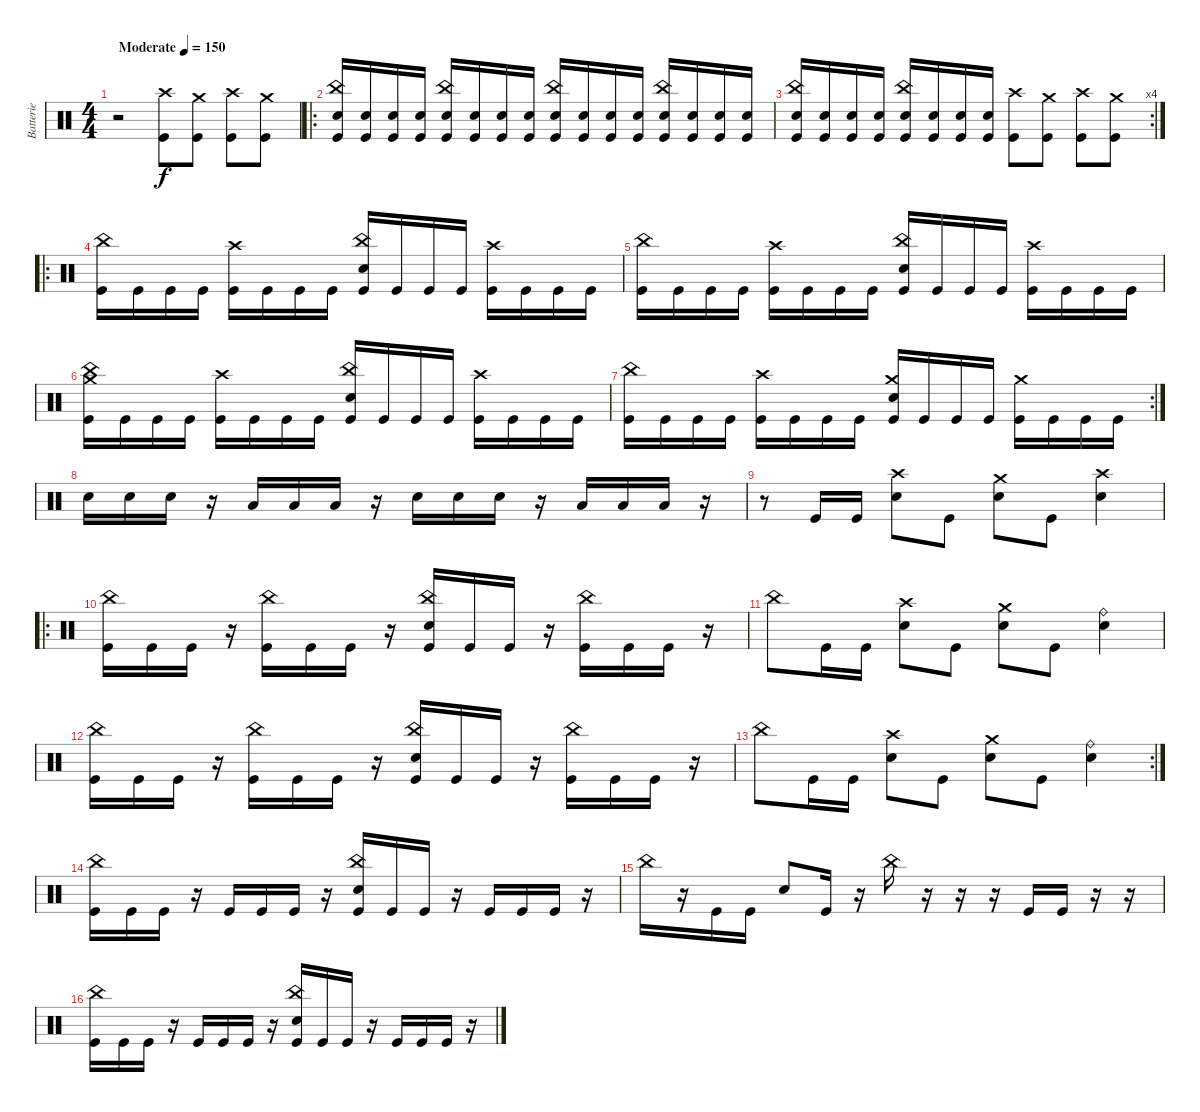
\track ("Batterie" "Batterie") {instrument percussion}
\staff {score}
\articulation defaults
\ts (4 4)
\tempo (150 "Moderate")
\clef neutral
\ks c
r.2{dy f} ("Crash high (hit)" "Kick (hit)").8 ("Crash medium (hit)" "Kick (hit)").8 ("Crash high (hit)" "Kick (hit)").8 ("Crash medium (hit)" "Kick (hit)").8 |
\ro
("China (hit)" "Electric Snare (hit)" "Kick (hit)").16 ("Electric Snare (hit)" "Kick (hit)").16 ("Electric Snare (hit)" "Kick (hit)").16 ("Electric Snare (hit)" "Kick (hit)").16 ("China (hit)" "Electric Snare (hit)" "Kick (hit)").16 ("Electric Snare (hit)" "Kick (hit)").16 ("Electric Snare (hit)" "Kick (hit)").16 ("Electric Snare (hit)" "Kick (hit)").16 ("China (hit)" "Electric Snare (hit)" "Kick (hit)").16 ("Electric Snare (hit)" "Kick (hit)").16 ("Electric Snare (hit)" "Kick (hit)").16 ("Electric Snare (hit)" "Kick (hit)").16 ("China (hit)" "Electric Snare (hit)" "Kick (hit)").16 ("Electric Snare (hit)" "Kick (hit)").16 ("Electric Snare (hit)" "Kick (hit)").16 ("Electric Snare (hit)" "Kick (hit)").16 |
\rc 4
("China (hit)" "Electric Snare (hit)" "Kick (hit)").16 ("Electric Snare (hit)" "Kick (hit)").16 ("Electric Snare (hit)" "Kick (hit)").16 ("Electric Snare (hit)" "Kick (hit)").16 ("China (hit)" "Electric Snare (hit)" "Kick (hit)").16 ("Electric Snare (hit)" "Kick (hit)").16 ("Electric Snare (hit)" "Kick (hit)").16 ("Electric Snare (hit)" "Kick (hit)").16 ("Crash high (hit)" "Kick (hit)").8 ("Crash medium (hit)" "Kick (hit)").8 ("Crash high (hit)" "Kick (hit)").8 ("Crash medium (hit)" "Kick (hit)").8 |
\ro
("China (hit)" "Kick (hit)").16 "Kick (hit)".16 "Kick (hit)".16 "Kick (hit)".16 ("Crash high (hit)" "Kick (hit)").16 "Kick (hit)".16 "Kick (hit)".16 "Kick (hit)".16 ("China (hit)" "Electric Snare (hit)" "Kick (hit)").16 "Kick (hit)".16 "Kick (hit)".16 "Kick (hit)".16 ("Crash high (hit)" "Kick (hit)").16 "Kick (hit)".16 "Kick (hit)".16 "Kick (hit)".16 |
("China (hit)" "Kick (hit)").16 "Kick (hit)".16 "Kick (hit)".16 "Kick (hit)".16 ("Crash high (hit)" "Kick (hit)").16 "Kick (hit)".16 "Kick (hit)".16 "Kick (hit)".16 ("China (hit)" "Electric Snare (hit)" "Kick (hit)").16 "Kick (hit)".16 "Kick (hit)".16 "Kick (hit)".16 ("Crash high (hit)" "Kick (hit)").16 "Kick (hit)".16 "Kick (hit)".16 "Kick (hit)".16 |
("China (hit)" "Crash medium (hit)" "Kick (hit)").16 "Kick (hit)".16 "Kick (hit)".16 "Kick (hit)".16 ("Crash high (hit)" "Kick (hit)").16 "Kick (hit)".16 "Kick (hit)".16 "Kick (hit)".16 ("China (hit)" "Electric Snare (hit)" "Kick (hit)").16 "Kick (hit)".16 "Kick (hit)".16 "Kick (hit)".16 ("Crash high (hit)" "Kick (hit)").16 "Kick (hit)".16 "Kick (hit)".16 "Kick (hit)".16 |
\rc 2
("China (hit)" "Kick (hit)").16 "Kick (hit)".16 "Kick (hit)".16 "Kick (hit)".16 ("Crash high (hit)" "Kick (hit)").16 "Kick (hit)".16 "Kick (hit)".16 "Kick (hit)".16 ("Crash medium (hit)" "Electric Snare (hit)" "Kick (hit)").16 "Kick (hit)".16 "Kick (hit)".16 "Kick (hit)".16 ("Crash medium (hit)" "Kick (hit)").16 "Kick (hit)".16 "Kick (hit)".16 "Kick (hit)".16 |
"Electric Snare (hit)".16 "Electric Snare (hit)".16 "Electric Snare (hit)".16 r.16 "Low Tom (hit)".16 "Low Tom (hit)".16 "Low Tom (hit)".16 r.16 "Electric Snare (hit)".16 "Electric Snare (hit)".16 "Electric Snare (hit)".16 r.16 "Low Tom (hit)".16 "Low Tom (hit)".16 "Low Tom (hit)".16 r.16 |
r.8 "Kick (hit)".16 "Kick (hit)".16 ("Crash high (hit)" "Electric Snare (hit)").8 "Kick (hit)".8 ("Crash medium (hit)" "Electric Snare (hit)").8 "Kick (hit)".8 ("Crash high (hit)" "Electric Snare (hit)").4 |
\ro
("China (hit)" "Kick (hit)").16 "Kick (hit)".16 "Kick (hit)".16 r.16 ("China (hit)" "Kick (hit)").16 "Kick (hit)".16 "Kick (hit)".16 r.16 ("China (hit)" "Electric Snare (hit)" "Kick (hit)").16 "Kick (hit)".16 "Kick (hit)".16 r.16 ("China (hit)" "Kick (hit)").16 "Kick (hit)".16 "Kick (hit)".16 r.16 |
"China (hit)".8 "Kick (hit)".16 "Kick (hit)".16 ("Crash high (hit)" "Electric Snare (hit)").8 "Kick (hit)".8 ("Crash medium (hit)" "Electric Snare (hit)").8 "Kick (hit)".8 ("Ride (bell)" "Electric Snare (hit)").4 |
("China (hit)" "Kick (hit)").16 "Kick (hit)".16 "Kick (hit)".16 r.16 ("China (hit)" "Kick (hit)").16 "Kick (hit)".16 "Kick (hit)".16 r.16 ("China (hit)" "Electric Snare (hit)" "Kick (hit)").16 "Kick (hit)".16 "Kick (hit)".16 r.16 ("China (hit)" "Kick (hit)").16 "Kick (hit)".16 "Kick (hit)".16 r.16 |
\rc 2 "China (hit)".8 "Kick (hit)".16 "Kick (hit)".16
("Crash high (hit)" "Electric Snare (hit)").8 "Kick (hit)".8 ("Crash medium (hit)" "Electric Snare (hit)").8 "Kick (hit)".8 ("Ride (bell)" "Electric Snare (hit)").4 |
("China (hit)" "Kick (hit)").16 "Kick (hit)".16 "Kick (hit)".16 r.16 "Kick (hit)".16 "Kick (hit)".16 "Kick (hit)".16 r.16 ("China (hit)" "Electric Snare (hit)" "Kick (hit)").16 "Kick (hit)".16 "Kick (hit)".16 r.16 "Kick (hit)".16 "Kick (hit)".16 "Kick (hit)".16 r.16 |
"China (hit)".16 r.16 "Kick (hit)".16 "Kick (hit)".16 "Electric Snare (hit)".8 "Kick (hit)".16 r.16 "China (hit)".16 r.16 r.16 r.16 "Kick (hit)".16 "Kick (hit)".16 r.16 r.16 |
("China (hit)" "Kick (hit)").16 "Kick (hit)".16 "Kick (hit)".16 r.16 "Kick (hit)".16 "Kick (hit)".16 "Kick (hit)".16 r.16 ("China (hit)" "Electric Snare (hit)" "Kick (hit)").16 "Kick (hit)".16 "Kick (hit)".16 r.16 "Kick (hit)".16 "Kick (hit)".16 "Kick (hit)".16 r.16
